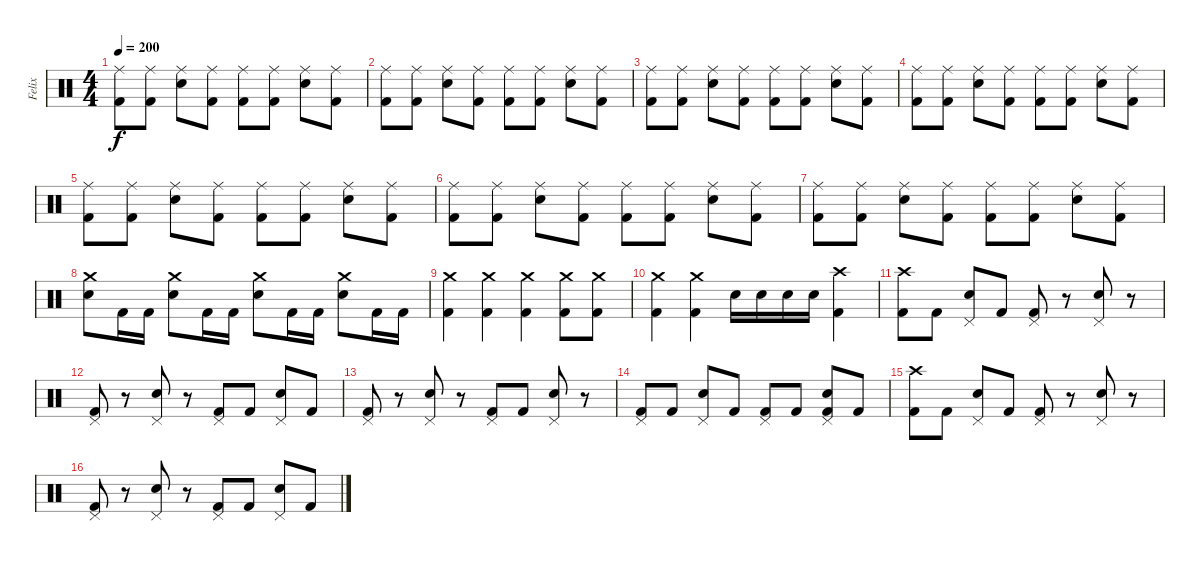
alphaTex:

\track ("Felix" "Felix") {instrument percussion}
\staff {score}
\articulation defaults
\ts (4 4)
\tempo 200
\clef neutral
\ks c
("Ride (middle)" "Kick (hit) 2").8{dy f} ("Ride (middle)" "Kick (hit) 2").8 ("Ride (middle)" "Electric Snare (hit)").8 ("Ride (middle)" "Kick (hit) 2").8 ("Ride (middle)" "Kick (hit) 2").8 ("Ride (middle)" "Kick (hit) 2").8 ("Ride (middle)" "Electric Snare (hit)").8 ("Ride (middle)" "Kick (hit) 2").8 |
("Ride (middle)" "Kick (hit) 2").8 ("Ride (middle)" "Kick (hit) 2").8 ("Ride (middle)" "Electric Snare (hit)").8 ("Ride (middle)" "Kick (hit) 2").8 ("Ride (middle)" "Kick (hit) 2").8 ("Ride (middle)" "Kick (hit) 2").8 ("Ride (middle)" "Electric Snare (hit)").8 ("Ride (middle)" "Kick (hit) 2").8 |
("Ride (middle)" "Kick (hit) 2").8 ("Ride (middle)" "Kick (hit) 2").8 ("Ride (middle)" "Electric Snare (hit)").8 ("Ride (middle)" "Kick (hit) 2").8 ("Ride (middle)" "Kick (hit) 2").8 ("Ride (middle)" "Kick (hit) 2").8 ("Ride (middle)" "Electric Snare (hit)").8 ("Ride (middle)" "Kick (hit) 2").8 |
("Ride (middle)" "Kick (hit) 2").8 ("Ride (middle)" "Kick (hit) 2").8 ("Ride (middle)" "Electric Snare (hit)").8 ("Ride (middle)" "Kick (hit) 2").8 ("Ride (middle)" "Kick (hit) 2").8 ("Ride (middle)" "Kick (hit) 2").8 ("Ride (middle)" "Electric Snare (hit)").8 ("Ride (middle)" "Kick (hit) 2").8 |
("Ride (middle)" "Kick (hit) 2").8 ("Ride (middle)" "Kick (hit) 2").8 ("Ride (middle)" "Electric Snare (hit)").8 ("Ride (middle)" "Kick (hit) 2").8 ("Ride (middle)" "Kick (hit) 2").8 ("Ride (middle)" "Kick (hit) 2").8 ("Ride (middle)" "Electric Snare (hit)").8 ("Ride (middle)" "Kick (hit) 2").8 |
("Ride (middle)" "Kick (hit) 2").8 ("Ride (middle)" "Kick (hit) 2").8 ("Ride (middle)" "Electric Snare (hit)").8 ("Ride (middle)" "Kick (hit) 2").8 ("Ride (middle)" "Kick (hit) 2").8 ("Ride (middle)" "Kick (hit) 2").8 ("Ride (middle)" "Electric Snare (hit)").8 ("Ride (middle)" "Kick (hit) 2").8 |
("Ride (middle)" "Kick (hit) 2").8 ("Ride (middle)" "Kick (hit) 2").8 ("Ride (middle)" "Electric Snare (hit)").8 ("Ride (middle)" "Kick (hit) 2").8 ("Ride (middle)" "Kick (hit) 2").8 ("Ride (middle)" "Kick (hit) 2").8 ("Ride (middle)" "Electric Snare (hit)").8 ("Ride (middle)" "Kick (hit) 2").8 |
("Crash medium (hit)" "Electric Snare (hit)").8 "Kick (hit) 2".16 "Kick (hit) 2".16 ("Crash medium (hit)" "Electric Snare (hit)").8 "Kick (hit) 2".16 "Kick (hit) 2".16 ("Crash medium (hit)" "Electric Snare (hit)").8 "Kick (hit) 2".16 "Kick (hit) 2".16 ("Crash medium (hit)" "Electric Snare (hit)").8 "Kick (hit) 2".16 "Kick (hit) 2".16 |
("Crash medium (hit)" "Kick (hit) 2").4 ("Crash medium (hit)" "Kick (hit) 2").4 ("Crash medium (hit)" "Kick (hit) 2").4 ("Crash medium (hit)" "Kick (hit) 2").8 ("Crash medium (hit)" "Kick (hit) 2").8 |
("Crash medium (hit)" "Kick (hit) 2").4 ("Crash medium (hit)" "Kick (hit) 2").4 "Electric Snare (hit)".16 "Electric Snare (hit)".16 "Electric Snare (hit)".16 "Electric Snare (hit)".16 ("Crash high (hit)" "Kick (hit) 2").4 |
("Crash high (hit)" "Kick (hit) 2").8 "Kick (hit) 2".8 ("Pedal Hi-Hat (hit)" "Electric Snare (hit)").8 "Kick (hit) 2".8 ("Pedal Hi-Hat (hit)" "Kick (hit) 2").8 r.8 ("Pedal Hi-Hat (hit)" "Electric Snare (hit)").8 r.8 |
("Pedal Hi-Hat (hit)" "Kick (hit) 2").8 r.8 ("Pedal Hi-Hat (hit)" "Electric Snare (hit)").8 r.8 ("Pedal Hi-Hat (hit)" "Kick (hit) 2").8 "Kick (hit) 2".8 ("Pedal Hi-Hat (hit)" "Electric Snare (hit)").8 "Kick (hit) 2".8 |
("Pedal Hi-Hat (hit)" "Kick (hit) 2").8 r.8 ("Pedal Hi-Hat (hit)" "Electric Snare (hit)").8 r.8 ("Pedal Hi-Hat (hit)" "Kick (hit) 2").8 "Kick (hit) 2".8 ("Pedal Hi-Hat (hit)" "Electric Snare (hit)").8 r.8 |
("Pedal Hi-Hat (hit)" "Kick (hit) 2").8 "Kick (hit) 2".8 ("Pedal Hi-Hat (hit)" "Electric Snare (hit)").8 "Kick (hit) 2".8 ("Pedal Hi-Hat (hit)" "Kick (hit) 2").8 "Kick (hit) 2".8 ("Pedal Hi-Hat (hit)" "Electric Snare (hit)" "Kick (hit) 2").8 "Kick (hit) 2".8 |
("Crash high (hit)" "Kick (hit) 2").8 "Kick (hit) 2".8 ("Pedal Hi-Hat (hit)" "Electric Snare (hit)").8 "Kick (hit) 2".8 ("Pedal Hi-Hat (hit)" "Kick (hit) 2").8 r.8 ("Pedal Hi-Hat (hit)" "Electric Snare (hit)").8 r.8 |
("Pedal Hi-Hat (hit)" "Kick (hit) 2").8 r.8 ("Pedal Hi-Hat (hit)" "Electric Snare (hit)").8 r.8 ("Pedal Hi-Hat (hit)" "Kick (hit) 2").8 "Kick (hit) 2".8 ("Pedal Hi-Hat (hit)" "Electric Snare (hit)").8 "Kick (hit) 2".8
